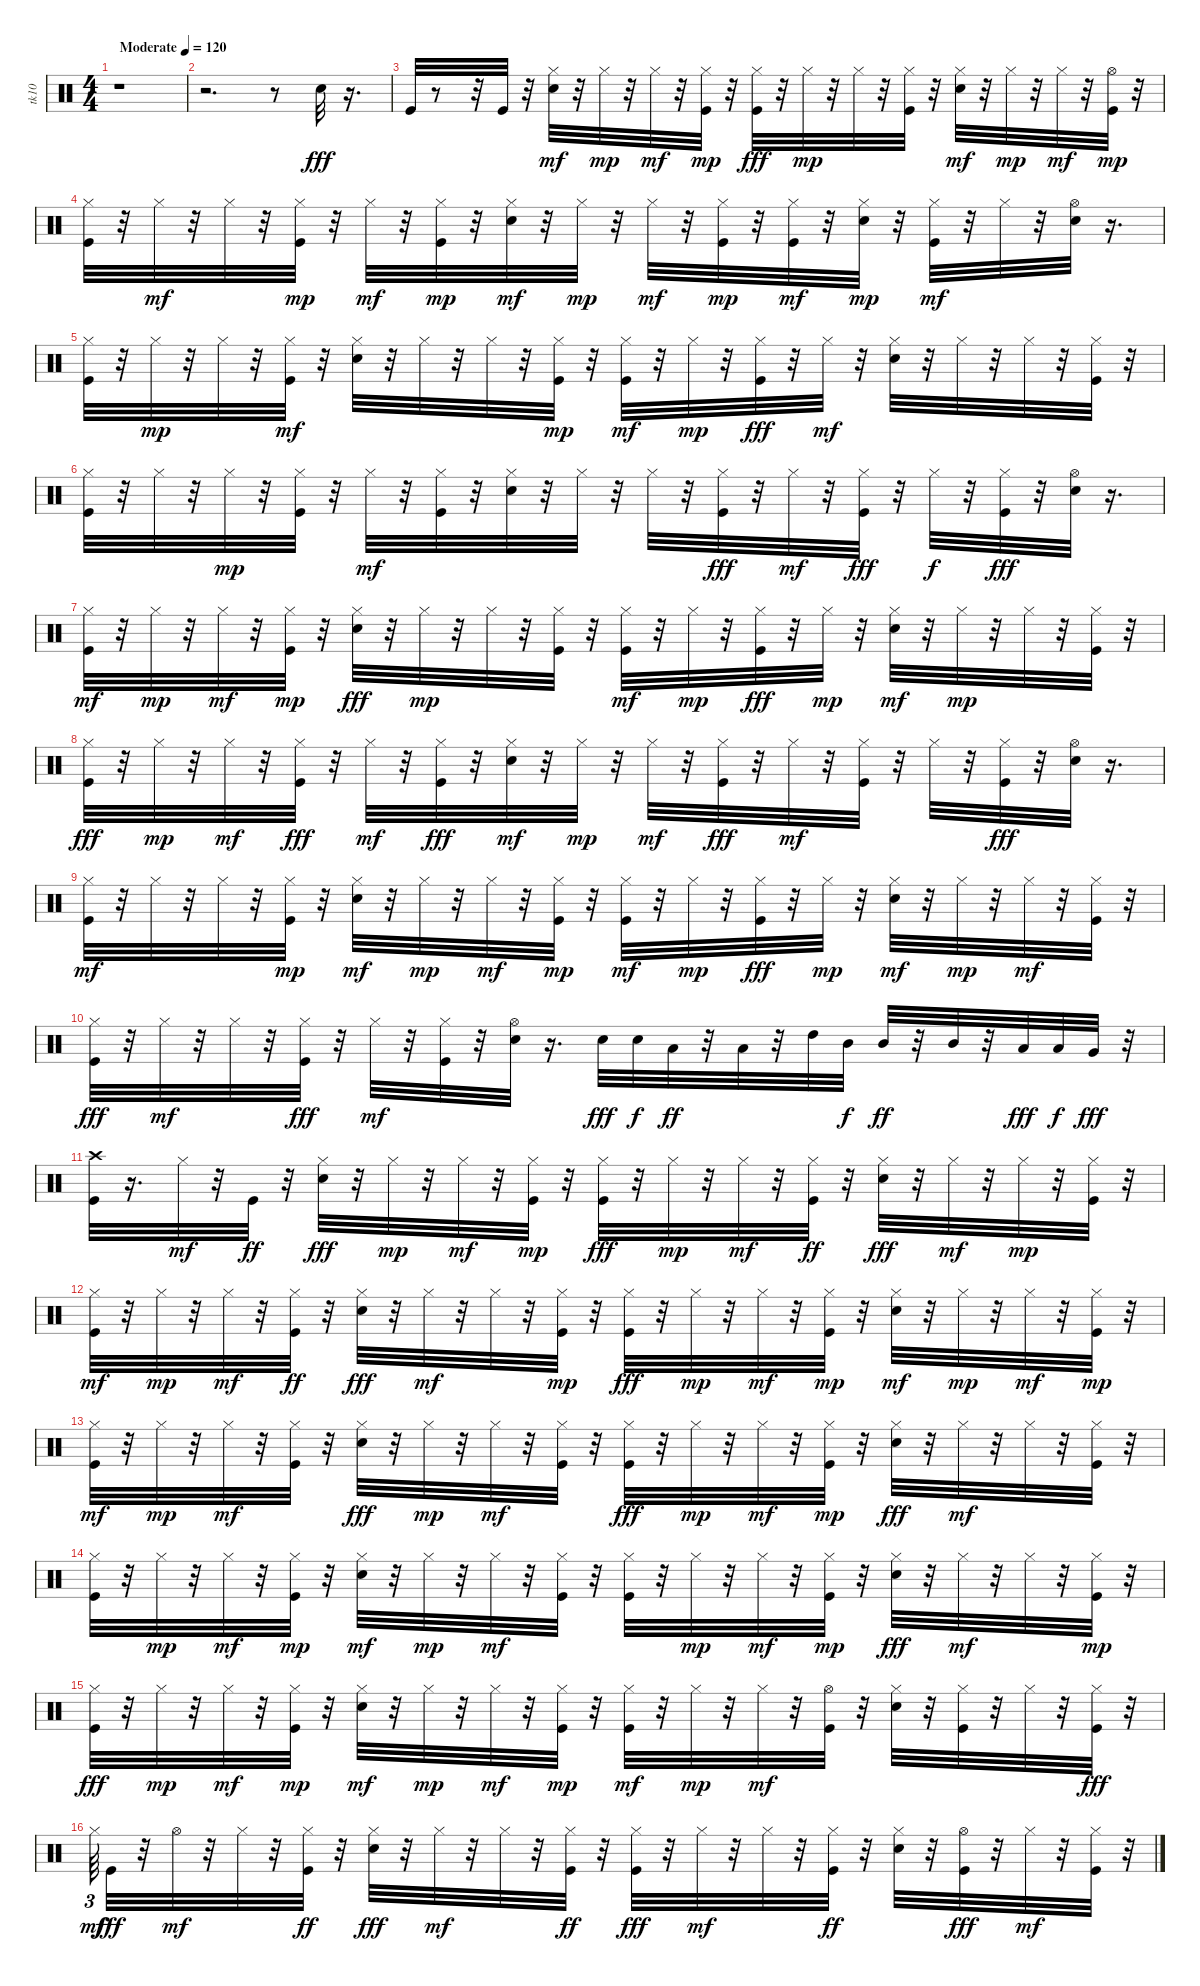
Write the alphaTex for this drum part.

\track ("tk10" "tk10") {instrument percussion}
\staff {score}
\articulation defaults
\ts (4 4)
\tempo (120 "Moderate")
\clef neutral
\ks c
r.1{dy fff} |
r.2{d} r.8 "Snare (hit) 2".32 r.16{d} |
"Kick (hit)".32 r.8 r.32 "Kick (hit)".32 r.32 ("Snare (hit) 2" "Hi-Hat (closed)").32{dy mf} r.32 "Hi-Hat (closed)".32{dy mp} r.32 "Hi-Hat (closed)".32{dy mf} r.32 ("Kick (hit)" "Hi-Hat (closed)").32{dy mp} r.32 ("Hi-Hat (closed)" "Kick (hit)").32{dy fff} r.32 "Hi-Hat (closed)".32{dy mp} r.32 "Hi-Hat (closed)".32 r.32 ("Kick (hit)" "Hi-Hat (closed)").32 r.32 ("Snare (hit) 2" "Hi-Hat (closed)").32{dy mf} r.32 "Hi-Hat (closed)".32{dy mp} r.32 "Hi-Hat (closed)".32{dy mf} r.32 ("Kick (hit)" "Hi-Hat (open)").32{dy mp} r.32 |
("Kick (hit)" "Hi-Hat (closed)").32 r.32 "Hi-Hat (closed)".32{dy mf} r.32 "Hi-Hat (closed)".32 r.32 ("Kick (hit)" "Hi-Hat (closed)").32{dy mp} r.32 "Hi-Hat (closed)".32{dy mf} r.32 ("Kick (hit)" "Hi-Hat (closed)").32{dy mp} r.32 ("Snare (hit) 2" "Hi-Hat (closed)").32{dy mf} r.32 "Hi-Hat (closed)".32{dy mp} r.32 "Hi-Hat (closed)".32{dy mf} r.32 ("Kick (hit)" "Hi-Hat (closed)").32{dy mp} r.32 ("Kick (hit)" "Hi-Hat (closed)").32{dy mf} r.32 ("Snare (hit) 2" "Hi-Hat (closed)").32{dy mp} r.32 ("Kick (hit)" "Hi-Hat (closed)").32{dy mf} r.32 "Hi-Hat (closed)".32 r.32 ("Snare (hit) 2" "Hi-Hat (open)").32 r.16{d} |
("Kick (hit)" "Hi-Hat (closed)").32 r.32 "Hi-Hat (closed)".32{dy mp} r.32 "Hi-Hat (closed)".32 r.32 ("Kick (hit)" "Hi-Hat (closed)").32{dy mf} r.32 ("Snare (hit) 2" "Hi-Hat (closed)").32 r.32 "Hi-Hat (closed)".32 r.32 "Hi-Hat (closed)".32 r.32 ("Kick (hit)" "Hi-Hat (closed)").32{dy mp} r.32 ("Kick (hit)" "Hi-Hat (closed)").32{dy mf} r.32 "Hi-Hat (closed)".32{dy mp} r.32 ("Hi-Hat (closed)" "Kick (hit)").32{dy fff} r.32 "Hi-Hat (closed)".32{dy mf} r.32 ("Snare (hit) 2" "Hi-Hat (closed)").32 r.32 "Hi-Hat (closed)".32 r.32 "Hi-Hat (closed)".32 r.32 ("Kick (hit)" "Hi-Hat (closed)").32 r.32 |
("Kick (hit)" "Hi-Hat (closed)").32 r.32 "Hi-Hat (closed)".32 r.32 "Hi-Hat (closed)".32{dy mp} r.32 ("Kick (hit)" "Hi-Hat (closed)").32 r.32 "Hi-Hat (closed)".32{dy mf} r.32 ("Kick (hit)" "Hi-Hat (closed)").32 r.32 ("Snare (hit) 2" "Hi-Hat (closed)").32 r.32 "Hi-Hat (closed)".32 r.32 "Hi-Hat (closed)".32 r.32 ("Hi-Hat (closed)" "Kick (hit)").32{dy fff} r.32 "Hi-Hat (closed)".32{dy mf} r.32 ("Hi-Hat (closed)" "Kick (hit)").32{dy fff} r.32 "Hi-Hat (closed)".32{dy f} r.32 ("Hi-Hat (closed)" "Kick (hit)").32{dy fff} r.32 ("Hi-Hat (open)" "Snare (hit) 2").32 r.16{d} |
("Kick (hit)" "Hi-Hat (closed)").32{dy mf} r.32 "Hi-Hat (closed)".32{dy mp} r.32 "Hi-Hat (closed)".32{dy mf} r.32 ("Kick (hit)" "Hi-Hat (closed)").32{dy mp} r.32 ("Hi-Hat (closed)" "Snare (hit) 2").32{dy fff} r.32 "Hi-Hat (closed)".32{dy mp} r.32 "Hi-Hat (closed)".32 r.32 ("Kick (hit)" "Hi-Hat (closed)").32 r.32 ("Kick (hit)" "Hi-Hat (closed)").32{dy mf} r.32 "Hi-Hat (closed)".32{dy mp} r.32 ("Hi-Hat (closed)" "Kick (hit)").32{dy fff} r.32 "Hi-Hat (closed)".32{dy mp} r.32 ("Snare (hit) 2" "Hi-Hat (closed)").32{dy mf} r.32 "Hi-Hat (closed)".32{dy mp} r.32 "Hi-Hat (closed)".32 r.32 ("Kick (hit)" "Hi-Hat (closed)").32 r.32 |
("Hi-Hat (closed)" "Kick (hit)").32{dy fff} r.32 "Hi-Hat (closed)".32{dy mp} r.32 "Hi-Hat (closed)".32{dy mf} r.32 ("Hi-Hat (closed)" "Kick (hit)").32{dy fff} r.32 "Hi-Hat (closed)".32{dy mf} r.32 ("Hi-Hat (closed)" "Kick (hit)").32{dy fff} r.32 ("Snare (hit) 2" "Hi-Hat (closed)").32{dy mf} r.32 "Hi-Hat (closed)".32{dy mp} r.32 "Hi-Hat (closed)".32{dy mf} r.32 ("Hi-Hat (closed)" "Kick (hit)").32{dy fff} r.32 "Hi-Hat (closed)".32{dy mf} r.32 ("Kick (hit)" "Hi-Hat (closed)").32 r.32 "Hi-Hat (closed)".32 r.32 ("Hi-Hat (closed)" "Kick (hit)").32{dy fff} r.32 ("Hi-Hat (open)" "Snare (hit) 2").32 r.16{d} |
("Kick (hit)" "Hi-Hat (closed)").32{dy mf} r.32 "Hi-Hat (closed)".32 r.32 "Hi-Hat (closed)".32 r.32 ("Kick (hit)" "Hi-Hat (closed)").32{dy mp} r.32 ("Snare (hit) 2" "Hi-Hat (closed)").32{dy mf} r.32 "Hi-Hat (closed)".32{dy mp} r.32 "Hi-Hat (closed)".32{dy mf} r.32 ("Kick (hit)" "Hi-Hat (closed)").32{dy mp} r.32 ("Kick (hit)" "Hi-Hat (closed)").32{dy mf} r.32 "Hi-Hat (closed)".32{dy mp} r.32 ("Hi-Hat (closed)" "Kick (hit)").32{dy fff} r.32 "Hi-Hat (closed)".32{dy mp} r.32 ("Snare (hit) 2" "Hi-Hat (closed)").32{dy mf} r.32 "Hi-Hat (closed)".32{dy mp} r.32 "Hi-Hat (closed)".32{dy mf} r.32 ("Kick (hit)" "Hi-Hat (closed)").32 r.32 |
("Hi-Hat (closed)" "Kick (hit)").32{dy fff} r.32 "Hi-Hat (closed)".32{dy mf} r.32 "Hi-Hat (closed)".32 r.32 ("Hi-Hat (closed)" "Kick (hit)").32{dy fff} r.32 "Hi-Hat (closed)".32{dy mf} r.32 ("Kick (hit)" "Hi-Hat (closed)").32 r.32 ("Snare (hit) 2" "Hi-Hat (open)").32 r.16{d} "Snare (hit) 2".32{dy fff} "Snare (hit) 2".32{dy f} "Low Floor Tom (hit)".32{dy ff} r.32 "Low Floor Tom (hit)".32 r.32 "High Tom (hit)".32 "Mid Tom (hit)".32{dy f} "Mid Tom (hit)".32{dy ff} r.32 "Mid Tom (hit)".32 r.32 "Low Tom (hit)".32{dy fff} "Low Tom (hit)".32{dy f} "Very Low Tom (hit)".32{dy fff} r.32 |
("Kick (hit)" "Crash high (hit)").32 r.16{d} "Hi-Hat (closed)".32{dy mf} r.32 "Kick (hit)".32{dy ff} r.32 ("Hi-Hat (closed)" "Snare (hit) 2").32{dy fff} r.32 "Hi-Hat (closed)".32{dy mp} r.32 "Hi-Hat (closed)".32{dy mf} r.32 ("Hi-Hat (closed)" "Kick (hit)").32{dy mp} r.32 ("Hi-Hat (closed)" "Kick (hit)").32{dy fff} r.32 "Hi-Hat (closed)".32{dy mp} r.32 "Hi-Hat (closed)".32{dy mf} r.32 ("Hi-Hat (closed)" "Kick (hit)").32{dy ff} r.32 ("Hi-Hat (closed)" "Snare (hit) 2").32{dy fff} r.32 "Hi-Hat (closed)".32{dy mf} r.32 "Hi-Hat (closed)".32{dy mp} r.32 ("Kick (hit)" "Hi-Hat (closed)").32 r.32 |
("Kick (hit)" "Hi-Hat (closed)").32{dy mf} r.32 "Hi-Hat (closed)".32{dy mp} r.32 "Hi-Hat (closed)".32{dy mf} r.32 ("Hi-Hat (closed)" "Kick (hit)").32{dy ff} r.32 ("Hi-Hat (closed)" "Snare (hit) 2").32{dy fff} r.32 "Hi-Hat (closed)".32{dy mf} r.32 "Hi-Hat (closed)".32 r.32 ("Hi-Hat (closed)" "Kick (hit)").32{dy mp} r.32 ("Hi-Hat (closed)" "Kick (hit)").32{dy fff} r.32 "Hi-Hat (closed)".32{dy mp} r.32 "Hi-Hat (closed)".32{dy mf} r.32 ("Kick (hit)" "Hi-Hat (closed)").32{dy mp} r.32 ("Snare (hit) 2" "Hi-Hat (closed)").32{dy mf} r.32 "Hi-Hat (closed)".32{dy mp} r.32 "Hi-Hat (closed)".32{dy mf} r.32 ("Kick (hit)" "Hi-Hat (closed)").32{dy mp} r.32 |
("Kick (hit)" "Hi-Hat (closed)").32{dy mf} r.32 "Hi-Hat (closed)".32{dy mp} r.32 "Hi-Hat (closed)".32{dy mf} r.32 ("Kick (hit)" "Hi-Hat (closed)").32 r.32 ("Hi-Hat (closed)" "Snare (hit) 2").32{dy fff} r.32 "Hi-Hat (closed)".32{dy mp} r.32 "Hi-Hat (closed)".32{dy mf} r.32 ("Kick (hit)" "Hi-Hat (closed)").32 r.32 ("Hi-Hat (closed)" "Kick (hit)").32{dy fff} r.32 "Hi-Hat (closed)".32{dy mp} r.32 "Hi-Hat (closed)".32{dy mf} r.32 ("Kick (hit)" "Hi-Hat (closed)").32{dy mp} r.32 ("Hi-Hat (closed)" "Snare (hit) 2").32{dy fff} r.32 "Hi-Hat (closed)".32{dy mf} r.32 "Hi-Hat (closed)".32 r.32 ("Kick (hit)" "Hi-Hat (closed)").32 r.32 |
("Kick (hit)" "Hi-Hat (closed)").32 r.32 "Hi-Hat (closed)".32{dy mp} r.32 "Hi-Hat (closed)".32{dy mf} r.32 ("Kick (hit)" "Hi-Hat (closed)").32{dy mp} r.32 ("Snare (hit) 2" "Hi-Hat (closed)").32{dy mf} r.32 "Hi-Hat (closed)".32{dy mp} r.32 "Hi-Hat (closed)".32{dy mf} r.32 ("Kick (hit)" "Hi-Hat (closed)").32 r.32 ("Kick (hit)" "Hi-Hat (closed)").32 r.32 "Hi-Hat (closed)".32{dy mp} r.32 "Hi-Hat (closed)".32{dy mf} r.32 ("Kick (hit)" "Hi-Hat (closed)").32{dy mp} r.32 ("Hi-Hat (closed)" "Snare (hit) 2").32{dy fff} r.32 "Hi-Hat (closed)".32{dy mf} r.32 "Hi-Hat (closed)".32 r.32 ("Hi-Hat (closed)" "Kick (hit)").32{dy mp} r.32 |
("Hi-Hat (closed)" "Kick (hit)").32{dy fff} r.32 "Hi-Hat (closed)".32{dy mp} r.32 "Hi-Hat (closed)".32{dy mf} r.32 ("Kick (hit)" "Hi-Hat (closed)").32{dy mp} r.32 ("Snare (hit) 2" "Hi-Hat (closed)").32{dy mf} r.32 "Hi-Hat (closed)".32{dy mp} r.32 "Hi-Hat (closed)".32{dy mf} r.32 ("Kick (hit)" "Hi-Hat (closed)").32{dy mp} r.32 ("Kick (hit)" "Hi-Hat (closed)").32{dy mf} r.32 "Hi-Hat (closed)".32{dy mp} r.32 "Hi-Hat (closed)".32{dy mf} r.32 ("Kick (hit)" "Hi-Hat (open)").32 r.32 ("Snare (hit) 2" "Hi-Hat (closed)").32 r.32 ("Kick (hit)" "Hi-Hat (closed)").32 r.32 "Hi-Hat (closed)".32 r.32 ("Hi-Hat (closed)" "Kick (hit)").32{dy fff} r.32 |
"Hi-Hat (closed)".64{tu (3 2) dy mf} "Kick (hit)".32{dy fff} r.32 "Hi-Hat (open)".32{dy mf} r.32 "Hi-Hat (closed)".32 r.32 ("Hi-Hat (closed)" "Kick (hit)").32{dy ff} r.32 ("Hi-Hat (closed)" "Snare (hit) 2").32{dy fff} r.32 "Hi-Hat (closed)".32{dy mf} r.32 "Hi-Hat (closed)".32 r.32 ("Hi-Hat (closed)" "Kick (hit)").32{dy ff} r.32 ("Hi-Hat (closed)" "Kick (hit)").32{dy fff} r.32 "Hi-Hat (closed)".32{dy mf} r.32 "Hi-Hat (closed)".32 r.32 ("Hi-Hat (closed)" "Kick (hit)").32{dy ff} r.32 ("Hi-Hat (closed)" "Snare (hit) 2").32 r.32 ("Hi-Hat (open)" "Kick (hit)").32{dy fff} r.32 "Hi-Hat (closed)".32{dy mf} r.32 ("Kick (hit)" "Hi-Hat (closed)").32 r.32{tu (3 2)}
